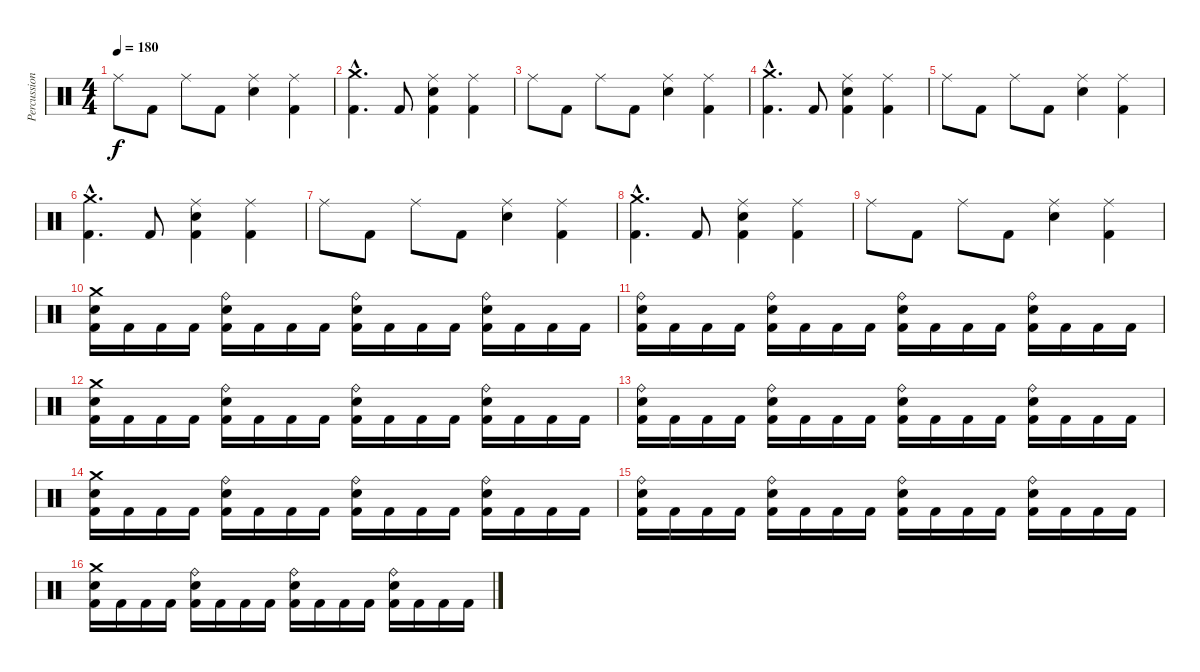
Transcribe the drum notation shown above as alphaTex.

\track ("Percussion" "Percussion") {instrument percussion}
\staff {score}
\articulation defaults
\ts (4 4)
\tempo 180
\clef neutral
\ks c "Ride (middle)".8{dy f} "Kick (hit) 2".8 "Ride (middle)".8 "Kick (hit) 2".8
("Ride (middle)" "Electric Snare (hit)").4 ("Ride (middle)" "Kick (hit) 2").4 |
("Crash medium (hit)"{hac} "Kick (hit) 2"{hac}).4{d} "Kick (hit) 2".8 ("Ride (middle)" "Electric Snare (hit)" "Kick (hit) 2").4 ("Ride (middle)" "Kick (hit) 2").4 |
"Ride (middle)".8 "Kick (hit) 2".8 "Ride (middle)".8 "Kick (hit) 2".8 ("Ride (middle)" "Electric Snare (hit)").4 ("Ride (middle)" "Kick (hit) 2").4 |
("Crash medium (hit)"{hac} "Kick (hit) 2"{hac}).4{d} "Kick (hit) 2".8 ("Ride (middle)" "Electric Snare (hit)" "Kick (hit) 2").4 ("Ride (middle)" "Kick (hit) 2").4 |
"Ride (middle)".8 "Kick (hit) 2".8 "Ride (middle)".8 "Kick (hit) 2".8 ("Ride (middle)" "Electric Snare (hit)").4 ("Ride (middle)" "Kick (hit) 2").4 |
("Crash medium (hit)"{hac} "Kick (hit) 2"{hac}).4{d} "Kick (hit) 2".8 ("Ride (middle)" "Electric Snare (hit)" "Kick (hit) 2").4 ("Ride (middle)" "Kick (hit) 2").4 |
"Ride (middle)".8 "Kick (hit) 2".8 "Ride (middle)".8 "Kick (hit) 2".8 ("Ride (middle)" "Electric Snare (hit)").4 ("Ride (middle)" "Kick (hit) 2").4 |
("Crash medium (hit)"{hac} "Kick (hit) 2"{hac}).4{d} "Kick (hit) 2".8 ("Ride (middle)" "Electric Snare (hit)" "Kick (hit) 2").4 ("Ride (middle)" "Kick (hit) 2").4 |
"Ride (middle)".8 "Kick (hit) 2".8 "Ride (middle)".8 "Kick (hit) 2".8 ("Ride (middle)" "Electric Snare (hit)").4 ("Ride (middle)" "Kick (hit) 2").4 |
("Crash medium (hit)" "Electric Snare (hit)" "Kick (hit) 2").16 "Kick (hit) 2".16 "Kick (hit) 2".16 "Kick (hit) 2".16 ("Ride (bell)" "Electric Snare (hit)" "Kick (hit) 2").16 "Kick (hit) 2".16 "Kick (hit) 2".16 "Kick (hit) 2".16 ("Ride (bell)" "Electric Snare (hit)" "Kick (hit) 2").16 "Kick (hit) 2".16 "Kick (hit) 2".16 "Kick (hit) 2".16 ("Ride (bell)" "Electric Snare (hit)" "Kick (hit) 2").16 "Kick (hit) 2".16 "Kick (hit) 2".16 "Kick (hit) 2".16 |
("Ride (bell)" "Electric Snare (hit)" "Kick (hit) 2").16 "Kick (hit) 2".16 "Kick (hit) 2".16 "Kick (hit) 2".16 ("Ride (bell)" "Electric Snare (hit)" "Kick (hit) 2").16 "Kick (hit) 2".16 "Kick (hit) 2".16 "Kick (hit) 2".16 ("Ride (bell)" "Electric Snare (hit)" "Kick (hit) 2").16 "Kick (hit) 2".16 "Kick (hit) 2".16 "Kick (hit) 2".16 ("Ride (bell)" "Electric Snare (hit)" "Kick (hit) 2").16 "Kick (hit) 2".16 "Kick (hit) 2".16 "Kick (hit) 2".16 |
("Crash medium (hit)" "Electric Snare (hit)" "Kick (hit) 2").16 "Kick (hit) 2".16 "Kick (hit) 2".16 "Kick (hit) 2".16 ("Ride (bell)" "Electric Snare (hit)" "Kick (hit) 2").16 "Kick (hit) 2".16 "Kick (hit) 2".16 "Kick (hit) 2".16 ("Ride (bell)" "Electric Snare (hit)" "Kick (hit) 2").16 "Kick (hit) 2".16 "Kick (hit) 2".16 "Kick (hit) 2".16 ("Ride (bell)" "Electric Snare (hit)" "Kick (hit) 2").16 "Kick (hit) 2".16 "Kick (hit) 2".16 "Kick (hit) 2".16 |
("Ride (bell)" "Electric Snare (hit)" "Kick (hit) 2").16 "Kick (hit) 2".16 "Kick (hit) 2".16 "Kick (hit) 2".16 ("Ride (bell)" "Electric Snare (hit)" "Kick (hit) 2").16 "Kick (hit) 2".16 "Kick (hit) 2".16 "Kick (hit) 2".16 ("Ride (bell)" "Electric Snare (hit)" "Kick (hit) 2").16 "Kick (hit) 2".16 "Kick (hit) 2".16 "Kick (hit) 2".16 ("Ride (bell)" "Electric Snare (hit)" "Kick (hit) 2").16 "Kick (hit) 2".16 "Kick (hit) 2".16 "Kick (hit) 2".16 |
("Crash medium (hit)" "Electric Snare (hit)" "Kick (hit) 2").16 "Kick (hit) 2".16 "Kick (hit) 2".16 "Kick (hit) 2".16 ("Ride (bell)" "Electric Snare (hit)" "Kick (hit) 2").16 "Kick (hit) 2".16 "Kick (hit) 2".16 "Kick (hit) 2".16 ("Ride (bell)" "Electric Snare (hit)" "Kick (hit) 2").16 "Kick (hit) 2".16 "Kick (hit) 2".16 "Kick (hit) 2".16 ("Ride (bell)" "Electric Snare (hit)" "Kick (hit) 2").16 "Kick (hit) 2".16 "Kick (hit) 2".16 "Kick (hit) 2".16 |
("Ride (bell)" "Electric Snare (hit)" "Kick (hit) 2").16 "Kick (hit) 2".16 "Kick (hit) 2".16 "Kick (hit) 2".16 ("Ride (bell)" "Electric Snare (hit)" "Kick (hit) 2").16 "Kick (hit) 2".16 "Kick (hit) 2".16 "Kick (hit) 2".16 ("Ride (bell)" "Electric Snare (hit)" "Kick (hit) 2").16 "Kick (hit) 2".16 "Kick (hit) 2".16 "Kick (hit) 2".16 ("Ride (bell)" "Electric Snare (hit)" "Kick (hit) 2").16 "Kick (hit) 2".16 "Kick (hit) 2".16 "Kick (hit) 2".16 |
("Crash medium (hit)" "Electric Snare (hit)" "Kick (hit) 2").16 "Kick (hit) 2".16 "Kick (hit) 2".16 "Kick (hit) 2".16 ("Ride (bell)" "Electric Snare (hit)" "Kick (hit) 2").16 "Kick (hit) 2".16 "Kick (hit) 2".16 "Kick (hit) 2".16 ("Ride (bell)" "Electric Snare (hit)" "Kick (hit) 2").16 "Kick (hit) 2".16 "Kick (hit) 2".16 "Kick (hit) 2".16 ("Ride (bell)" "Electric Snare (hit)" "Kick (hit) 2").16 "Kick (hit) 2".16 "Kick (hit) 2".16 "Kick (hit) 2".16
